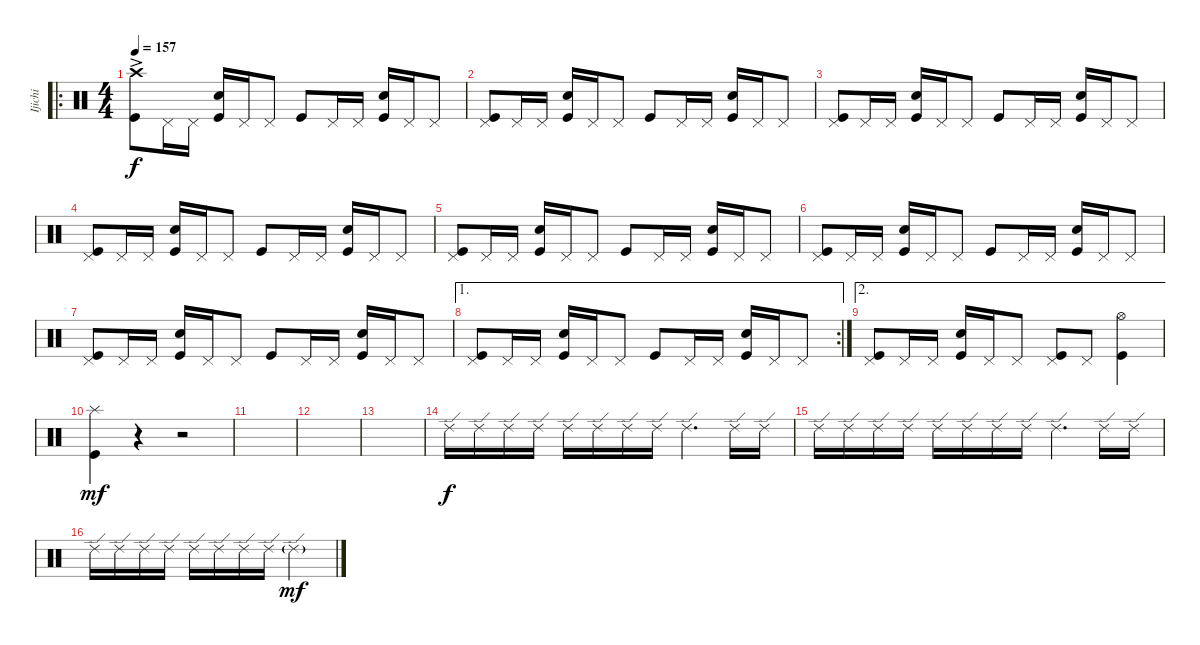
\track ("Ijichi" "Ijichi") {instrument percussion}
\staff {score}
\articulation defaults
\ro
\ts (4 4)
\tempo 157
\clef neutral
\ks c
("Crash high (hit)"{ac} "Kick (hit)").8{dy f} "Pedal Hi-Hat (hit)".16 "Pedal Hi-Hat (hit)".16 ("Snare (hit) 2" "Kick (hit)").16 "Pedal Hi-Hat (hit)".16 "Pedal Hi-Hat (hit)".8 "Kick (hit)".8 "Pedal Hi-Hat (hit)".16 "Pedal Hi-Hat (hit)".16 ("Snare (hit) 2" "Kick (hit)").16 "Pedal Hi-Hat (hit)".16 "Pedal Hi-Hat (hit)".8 |
("Pedal Hi-Hat (hit)" "Kick (hit)").8 "Pedal Hi-Hat (hit)".16 "Pedal Hi-Hat (hit)".16 ("Snare (hit) 2" "Kick (hit)").16 "Pedal Hi-Hat (hit)".16 "Pedal Hi-Hat (hit)".8 "Kick (hit)".8 "Pedal Hi-Hat (hit)".16 "Pedal Hi-Hat (hit)".16 ("Snare (hit) 2" "Kick (hit)").16 "Pedal Hi-Hat (hit)".16 "Pedal Hi-Hat (hit)".8 |
("Pedal Hi-Hat (hit)" "Kick (hit)").8 "Pedal Hi-Hat (hit)".16 "Pedal Hi-Hat (hit)".16 ("Snare (hit) 2" "Kick (hit)").16 "Pedal Hi-Hat (hit)".16 "Pedal Hi-Hat (hit)".8 "Kick (hit)".8 "Pedal Hi-Hat (hit)".16 "Pedal Hi-Hat (hit)".16 ("Snare (hit) 2" "Kick (hit)").16 "Pedal Hi-Hat (hit)".16 "Pedal Hi-Hat (hit)".8 |
("Pedal Hi-Hat (hit)" "Kick (hit)").8 "Pedal Hi-Hat (hit)".16 "Pedal Hi-Hat (hit)".16 ("Snare (hit) 2" "Kick (hit)").16 "Pedal Hi-Hat (hit)".16 "Pedal Hi-Hat (hit)".8 "Kick (hit)".8 "Pedal Hi-Hat (hit)".16 "Pedal Hi-Hat (hit)".16 ("Snare (hit) 2" "Kick (hit)").16 "Pedal Hi-Hat (hit)".16 "Pedal Hi-Hat (hit)".8 |
("Pedal Hi-Hat (hit)" "Kick (hit)").8 "Pedal Hi-Hat (hit)".16 "Pedal Hi-Hat (hit)".16 ("Snare (hit) 2" "Kick (hit)").16 "Pedal Hi-Hat (hit)".16 "Pedal Hi-Hat (hit)".8 "Kick (hit)".8 "Pedal Hi-Hat (hit)".16 "Pedal Hi-Hat (hit)".16 ("Snare (hit) 2" "Kick (hit)").16 "Pedal Hi-Hat (hit)".16 "Pedal Hi-Hat (hit)".8 |
("Pedal Hi-Hat (hit)" "Kick (hit)").8 "Pedal Hi-Hat (hit)".16 "Pedal Hi-Hat (hit)".16 ("Snare (hit) 2" "Kick (hit)").16 "Pedal Hi-Hat (hit)".16 "Pedal Hi-Hat (hit)".8 "Kick (hit)".8 "Pedal Hi-Hat (hit)".16 "Pedal Hi-Hat (hit)".16 ("Snare (hit) 2" "Kick (hit)").16 "Pedal Hi-Hat (hit)".16 "Pedal Hi-Hat (hit)".8 |
("Pedal Hi-Hat (hit)" "Kick (hit)").8 "Pedal Hi-Hat (hit)".16 "Pedal Hi-Hat (hit)".16 ("Snare (hit) 2" "Kick (hit)").16 "Pedal Hi-Hat (hit)".16 "Pedal Hi-Hat (hit)".8 "Kick (hit)".8 "Pedal Hi-Hat (hit)".16 "Pedal Hi-Hat (hit)".16 ("Snare (hit) 2" "Kick (hit)").16 "Pedal Hi-Hat (hit)".16 "Pedal Hi-Hat (hit)".8 |
\ae 1
\rc 2
("Pedal Hi-Hat (hit)" "Kick (hit)").8 "Pedal Hi-Hat (hit)".16 "Pedal Hi-Hat (hit)".16 ("Snare (hit) 2" "Kick (hit)").16 "Pedal Hi-Hat (hit)".16 "Pedal Hi-Hat (hit)".8 "Kick (hit)".8 "Pedal Hi-Hat (hit)".16 "Pedal Hi-Hat (hit)".16 ("Snare (hit) 2" "Kick (hit)").16 "Pedal Hi-Hat (hit)".16 "Pedal Hi-Hat (hit)".8 |
\ae 2
("Pedal Hi-Hat (hit)" "Kick (hit)").8 "Pedal Hi-Hat (hit)".16 "Pedal Hi-Hat (hit)".16 ("Snare (hit) 2" "Kick (hit)").16 "Pedal Hi-Hat (hit)".16 "Pedal Hi-Hat (hit)".8 ("Pedal Hi-Hat (hit)" "Kick (hit)").8 "Pedal Hi-Hat (hit)".8 ("Hi-Hat (open)" "Kick (hit)").4 |
("Splash (hit)" "Kick (hit)").4{dy mf} r.4 r.2 |
|
|
|
"Ride (edge) 2".16{dy f} "Ride (edge) 2".16 "Ride (edge) 2".16 "Ride (edge) 2".16 "Ride (edge) 2".16 "Ride (edge) 2".16 "Ride (edge) 2".16 "Ride (edge) 2".16 "Ride (edge) 2".4{d} "Ride (edge) 2".16 "Ride (edge) 2".16 |
"Ride (edge) 2".16 "Ride (edge) 2".16 "Ride (edge) 2".16 "Ride (edge) 2".16 "Ride (edge) 2".16 "Ride (edge) 2".16 "Ride (edge) 2".16 "Ride (edge) 2".16 "Ride (edge) 2".4{d} "Ride (edge) 2".16 "Ride (edge) 2".16 |
"Ride (edge) 2".16 "Ride (edge) 2".16 "Ride (edge) 2".16 "Ride (edge) 2".16 "Ride (edge) 2".16 "Ride (edge) 2".16 "Ride (edge) 2".16 "Ride (edge) 2".16 "Ride (edge) 2"{g}.2{dy mf}
